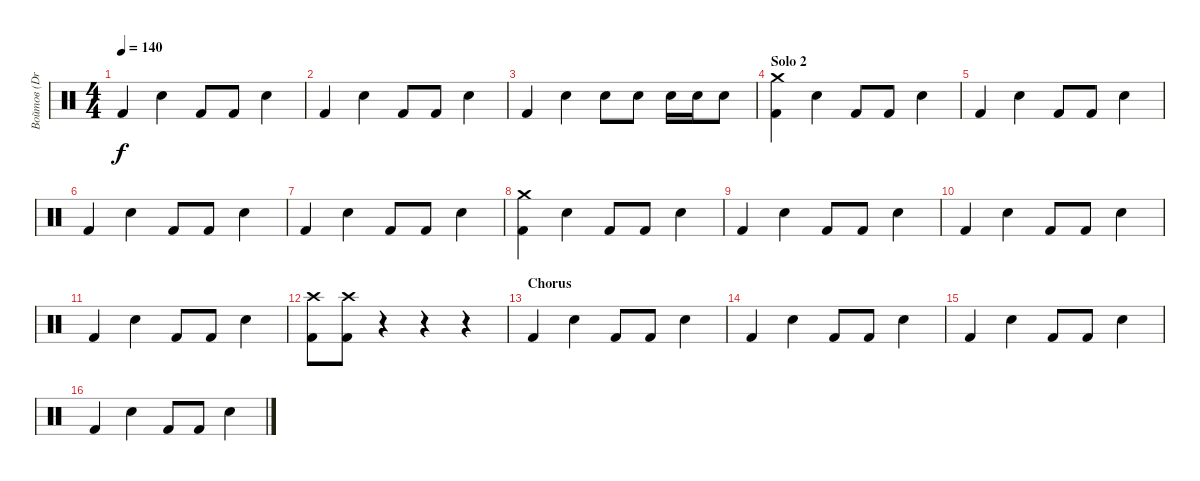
\track ("Войтов (Drums)" "Войтов (Dr") {instrument percussion}
\staff {score}
\articulation defaults
\ts (4 4)
\tempo 140
\clef neutral
\ks c "Kick (hit) 2".4{dy f} "Electric Snare (hit)".4 "Kick (hit) 2".8 "Kick (hit) 2".8 "Electric Snare (hit)".4
|
"Kick (hit) 2".4 "Electric Snare (hit)".4 "Kick (hit) 2".8 "Kick (hit) 2".8 "Electric Snare (hit)".4 |
"Kick (hit) 2".4 "Electric Snare (hit)".4 "Electric Snare (hit)".8 "Electric Snare (hit)".8 "Electric Snare (hit)".16 "Electric Snare (hit)".16 "Electric Snare (hit)".8 |
\section ("" "Solo 2")
("Kick (hit) 2" "Crash medium (hit)").4 "Electric Snare (hit)".4 "Kick (hit) 2".8 "Kick (hit) 2".8 "Electric Snare (hit)".4 |
"Kick (hit) 2".4 "Electric Snare (hit)".4 "Kick (hit) 2".8 "Kick (hit) 2".8 "Electric Snare (hit)".4 |
"Kick (hit) 2".4 "Electric Snare (hit)".4 "Kick (hit) 2".8 "Kick (hit) 2".8 "Electric Snare (hit)".4 |
"Kick (hit) 2".4 "Electric Snare (hit)".4 "Kick (hit) 2".8 "Kick (hit) 2".8 "Electric Snare (hit)".4 |
("Kick (hit) 2" "Crash medium (hit)").4 "Electric Snare (hit)".4 "Kick (hit) 2".8 "Kick (hit) 2".8 "Electric Snare (hit)".4 |
"Kick (hit) 2".4 "Electric Snare (hit)".4 "Kick (hit) 2".8 "Kick (hit) 2".8 "Electric Snare (hit)".4 |
"Kick (hit) 2".4 "Electric Snare (hit)".4 "Kick (hit) 2".8 "Kick (hit) 2".8 "Electric Snare (hit)".4 |
"Kick (hit) 2".4 "Electric Snare (hit)".4 "Kick (hit) 2".8 "Kick (hit) 2".8 "Electric Snare (hit)".4 |
("Kick (hit) 2" "Crash high (hit)").8 ("Crash high (hit)" "Kick (hit) 2").8 r.4 r.4 r.4 |
\section ("" "Chorus")
"Kick (hit) 2".4 "Electric Snare (hit)".4 "Kick (hit) 2".8 "Kick (hit) 2".8 "Electric Snare (hit)".4 |
"Kick (hit) 2".4 "Electric Snare (hit)".4 "Kick (hit) 2".8 "Kick (hit) 2".8 "Electric Snare (hit)".4 |
"Kick (hit) 2".4 "Electric Snare (hit)".4 "Kick (hit) 2".8 "Kick (hit) 2".8 "Electric Snare (hit)".4 |
"Kick (hit) 2".4 "Electric Snare (hit)".4 "Kick (hit) 2".8 "Kick (hit) 2".8 "Electric Snare (hit)".4
